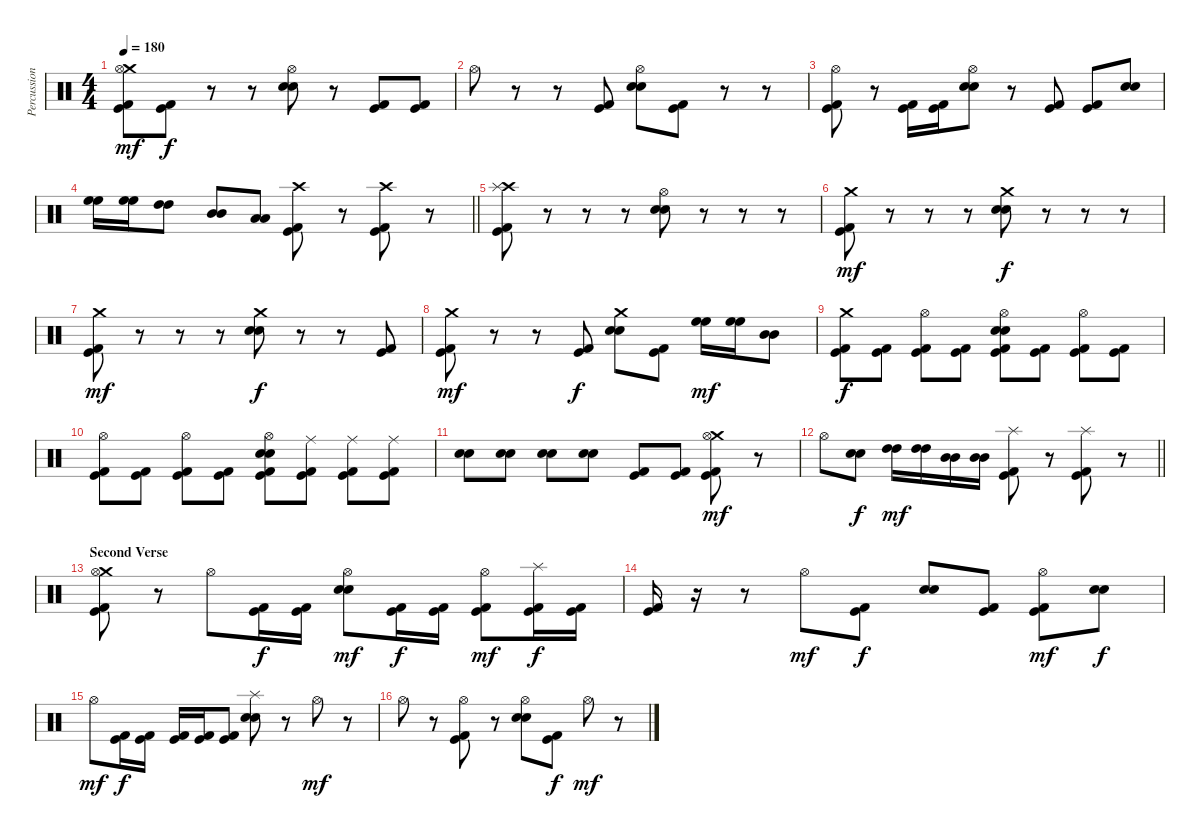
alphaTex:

\track ("Percussion" "Percussion") {instrument percussion}
\staff {score}
\articulation defaults
\ts (4 4)
\tempo 180
\clef neutral
\ks c
("Crash medium (hit)" "Hi-Hat (open)" "Kick (hit) 2" "Kick (hit)").8{dy mf} ("Kick (hit) 2" "Kick (hit)").8{dy f} r.8 r.8 ("Hi-Hat (open)" "Electric Snare (hit)" "Electric Snare (hit)").8 r.8 ("Kick (hit) 2" "Kick (hit)").8 ("Kick (hit) 2" "Kick (hit)").8 |
"Hi-Hat (open)".8 r.8 r.8 ("Kick (hit) 2" "Kick (hit)").8 ("Hi-Hat (open)" "Electric Snare (hit)" "Electric Snare (hit)").8 ("Kick (hit) 2" "Kick (hit)").8 r.8 r.8 |
("Hi-Hat (open)" "Kick (hit) 2" "Kick (hit)").8 r.8 ("Kick (hit) 2" "Kick (hit)").16 ("Kick (hit) 2" "Kick (hit)").16 ("Hi-Hat (open)" "Electric Snare (hit)" "Electric Snare (hit)").8 r.8 ("Kick (hit) 2" "Kick (hit)").8 ("Kick (hit) 2" "Kick (hit)").8 ("Electric Snare (hit)" "Electric Snare (hit)").8 |
\barLineRight lightlight
("High Floor Tom (hit)" "High Floor Tom (hit)").16 ("High Floor Tom (hit)" "High Floor Tom (hit)").16 ("High Tom (hit)" "High Tom (hit)").8 ("Mid Tom (hit)" "Mid Tom (hit)").8 ("Low Tom (hit)" "Low Tom (hit)").8 ("Crash high (hit)" "Kick (hit) 2" "Kick (hit)").8 r.8 ("Crash high (hit)" "Kick (hit) 2" "Kick (hit)").8 r.8 |
("Crash high (hit)" "Splash (hit)" "Kick (hit) 2" "Kick (hit)").8 r.8 r.8 r.8 ("Hi-Hat (open)" "Electric Snare (hit)" "Electric Snare (hit)").8 r.8 r.8 r.8 |
("Crash medium (hit)" "Kick (hit) 2" "Kick (hit)").8{dy mf} r.8 r.8 r.8 ("Crash medium (hit)" "Electric Snare (hit)" "Electric Snare (hit)").8{dy f} r.8 r.8 r.8 |
("Crash medium (hit)" "Kick (hit) 2" "Kick (hit)").8{dy mf} r.8 r.8 r.8 ("Crash medium (hit)" "Electric Snare (hit)" "Electric Snare (hit)").8{dy f} r.8 r.8 ("Kick (hit) 2" "Kick (hit)").8 |
("Crash medium (hit)" "Kick (hit) 2" "Kick (hit)").8{dy mf} r.8 r.8 ("Kick (hit) 2" "Kick (hit)").8{dy f} ("Crash medium (hit)" "Electric Snare (hit)" "Electric Snare (hit)").8 ("Kick (hit) 2" "Kick (hit)").8 ("High Floor Tom (hit)" "High Floor Tom (hit)").16{dy mf} ("High Floor Tom (hit)" "High Floor Tom (hit)").16 ("Mid Tom (hit)" "Mid Tom (hit)").8 |
("Crash medium (hit)" "Kick (hit) 2" "Kick (hit)").8{dy f} ("Kick (hit) 2" "Kick (hit)").8 ("Hi-Hat (open)" "Kick (hit) 2" "Kick (hit)").8 ("Kick (hit) 2" "Kick (hit)").8 ("Hi-Hat (open)" "Electric Snare (hit)" "Electric Snare (hit)" "Kick (hit) 2" "Kick (hit)").8 ("Kick (hit) 2" "Kick (hit)").8 ("Hi-Hat (open)" "Kick (hit) 2" "Kick (hit)").8 ("Kick (hit) 2" "Kick (hit)").8 |
("Hi-Hat (open)" "Kick (hit) 2" "Kick (hit)").8 ("Kick (hit) 2" "Kick (hit)").8 ("Hi-Hat (open)" "Kick (hit) 2" "Kick (hit)").8 ("Kick (hit) 2" "Kick (hit)").8 ("Hi-Hat (open)" "Electric Snare (hit)" "Electric Snare (hit)" "Kick (hit) 2" "Kick (hit)").8 ("Ride (middle)" "Kick (hit) 2" "Kick (hit)").8 ("Ride (middle)" "Kick (hit) 2" "Kick (hit)").8 ("Ride (middle)" "Kick (hit) 2" "Kick (hit)").8 |
("Electric Snare (hit)" "Electric Snare (hit)").8 ("Electric Snare (hit)" "Electric Snare (hit)").8 ("Electric Snare (hit)" "Electric Snare (hit)").8 ("Electric Snare (hit)" "Electric Snare (hit)").8 ("Kick (hit) 2" "Kick (hit)").8 ("Kick (hit) 2" "Kick (hit)").8 ("Crash medium (hit)" "Hi-Hat (open)" "Kick (hit) 2" "Kick (hit)").8{dy mf} r.8 |
\barLineRight lightlight "Hi-Hat (open)".8
("Electric Snare (hit)" "Electric Snare (hit)").8{dy f} ("High Tom (hit)" "High Tom (hit)").16{dy mf} ("High Tom (hit)" "High Tom (hit)").16 ("Mid Tom (hit)" "Mid Tom (hit)").16 ("Mid Tom (hit)" "Mid Tom (hit)").16 ("Splash (hit)" "Kick (hit) 2" "Kick (hit)").8 r.8 ("Splash (hit)" "Kick (hit) 2" "Kick (hit)").8 r.8 |
\section ("" "Second Verse")
("Crash medium (hit)" "Hi-Hat (open)" "Kick (hit) 2" "Kick (hit)").8 r.8 "Hi-Hat (open)".8 ("Kick (hit) 2" "Kick (hit)").16{dy f} ("Kick (hit) 2" "Kick (hit)").16 ("Hi-Hat (open)" "Electric Snare (hit)" "Electric Snare (hit)").8{dy mf} ("Kick (hit) 2" "Kick (hit)").16{dy f} ("Kick (hit) 2" "Kick (hit)").16 ("Hi-Hat (open)" "Kick (hit) 2" "Kick (hit)").8{dy mf} ("Splash (hit)" "Kick (hit) 2" "Kick (hit)").16{dy f} ("Kick (hit) 2" "Kick (hit)").16 |
("Kick (hit) 2" "Kick (hit)").16 r.16 r.8 "Hi-Hat (open)".8{dy mf} ("Kick (hit) 2" "Kick (hit)").8{dy f} ("Electric Snare (hit)" "Electric Snare (hit)").8 ("Kick (hit) 2" "Kick (hit)").8 ("Hi-Hat (open)" "Kick (hit) 2" "Kick (hit)").8{dy mf} ("Electric Snare (hit)" "Electric Snare (hit)").8{dy f} |
"Hi-Hat (open)".8{dy mf} ("Kick (hit) 2" "Kick (hit)").16{dy f} ("Kick (hit) 2" "Kick (hit)").16 ("Kick (hit) 2" "Kick (hit)").16 ("Kick (hit) 2" "Kick (hit)").16 ("Kick (hit) 2" "Kick (hit)").8 ("Splash (hit)" "Electric Snare (hit)" "Electric Snare (hit)").8 r.8 "Hi-Hat (open)".8{dy mf} r.8 |
"Hi-Hat (open)".8 r.8 ("Hi-Hat (open)" "Kick (hit) 2" "Kick (hit)").8 r.8 ("Hi-Hat (open)" "Electric Snare (hit)" "Electric Snare (hit)").8 ("Kick (hit) 2" "Kick (hit)").8{dy f} "Hi-Hat (open)".8{dy mf} r.8
